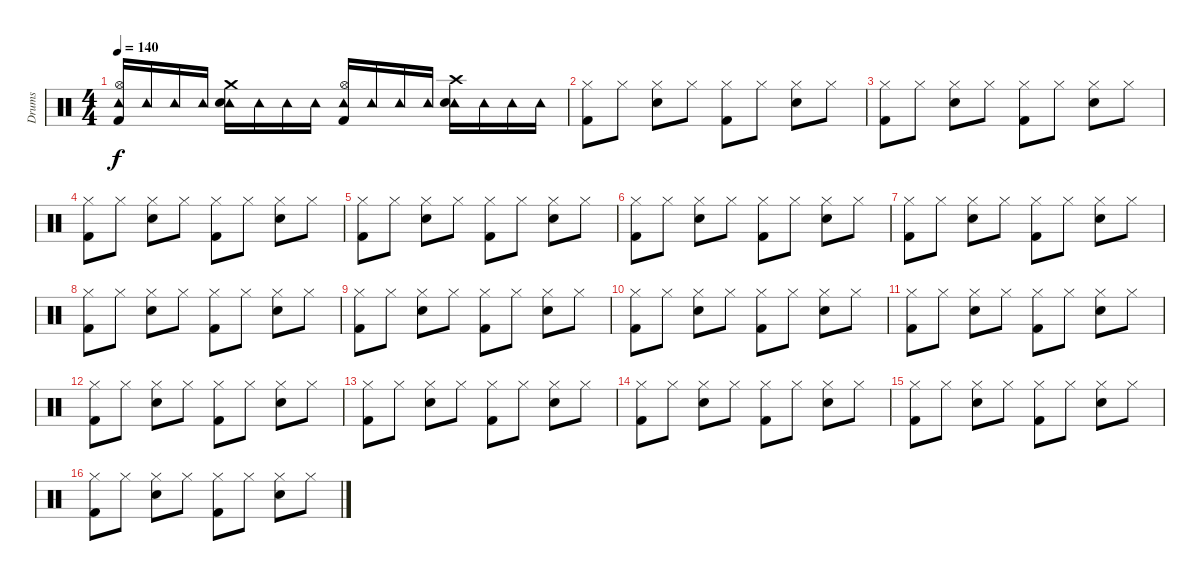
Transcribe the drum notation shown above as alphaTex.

\track ("Drums" "Drums") {instrument percussion}
\staff {score}
\articulation defaults
\ts (4 4)
\tempo 140
\clef neutral
\ks c
("Tambourine (hit)" "Hi-Hat (open)" "Kick (hit) 2").16{dy f} "Tambourine (hit)".16 "Tambourine (hit)".16 "Tambourine (hit)".16 ("Tambourine (hit)" "Crash medium (hit)" "Snare (hit) 2").16 "Tambourine (hit)".16 "Tambourine (hit)".16 "Tambourine (hit)".16 ("Tambourine (hit)" "Hi-Hat (open)" "Kick (hit) 2").16 "Tambourine (hit)".16 "Tambourine (hit)".16 "Tambourine (hit)".16 ("Tambourine (hit)" "Crash high (hit)" "Snare (hit) 2").16 "Tambourine (hit)".16 "Tambourine (hit)".16 "Tambourine (hit)".16 |
("Hi-Hat (closed)" "Kick (hit) 2").8 "Hi-Hat (closed)".8 ("Hi-Hat (closed)" "Snare (hit) 2").8 "Hi-Hat (closed)".8 ("Hi-Hat (closed)" "Kick (hit) 2").8 "Hi-Hat (closed)".8 ("Hi-Hat (closed)" "Snare (hit) 2").8 "Hi-Hat (closed)".8 |
("Hi-Hat (closed)" "Kick (hit) 2").8 "Hi-Hat (closed)".8 ("Hi-Hat (closed)" "Snare (hit) 2").8 "Hi-Hat (closed)".8 ("Hi-Hat (closed)" "Kick (hit) 2").8 "Hi-Hat (closed)".8 ("Hi-Hat (closed)" "Snare (hit) 2").8 "Hi-Hat (closed)".8 |
("Hi-Hat (closed)" "Kick (hit) 2").8 "Hi-Hat (closed)".8 ("Hi-Hat (closed)" "Snare (hit) 2").8 "Hi-Hat (closed)".8 ("Hi-Hat (closed)" "Kick (hit) 2").8 "Hi-Hat (closed)".8 ("Hi-Hat (closed)" "Snare (hit) 2").8 "Hi-Hat (closed)".8 |
("Hi-Hat (closed)" "Kick (hit) 2").8 "Hi-Hat (closed)".8 ("Hi-Hat (closed)" "Snare (hit) 2").8 "Hi-Hat (closed)".8 ("Hi-Hat (closed)" "Kick (hit) 2").8 "Hi-Hat (closed)".8 ("Hi-Hat (closed)" "Snare (hit) 2").8 "Hi-Hat (closed)".8 |
("Hi-Hat (closed)" "Kick (hit) 2").8 "Hi-Hat (closed)".8 ("Hi-Hat (closed)" "Snare (hit) 2").8 "Hi-Hat (closed)".8 ("Hi-Hat (closed)" "Kick (hit) 2").8 "Hi-Hat (closed)".8 ("Hi-Hat (closed)" "Snare (hit) 2").8 "Hi-Hat (closed)".8 |
("Hi-Hat (closed)" "Kick (hit) 2").8 "Hi-Hat (closed)".8 ("Hi-Hat (closed)" "Snare (hit) 2").8 "Hi-Hat (closed)".8 ("Hi-Hat (closed)" "Kick (hit) 2").8 "Hi-Hat (closed)".8 ("Hi-Hat (closed)" "Snare (hit) 2").8 "Hi-Hat (closed)".8 |
("Hi-Hat (closed)" "Kick (hit) 2").8 "Hi-Hat (closed)".8 ("Hi-Hat (closed)" "Snare (hit) 2").8 "Hi-Hat (closed)".8 ("Hi-Hat (closed)" "Kick (hit) 2").8 "Hi-Hat (closed)".8 ("Hi-Hat (closed)" "Snare (hit) 2").8 "Hi-Hat (closed)".8 |
("Hi-Hat (closed)" "Kick (hit) 2").8 "Hi-Hat (closed)".8 ("Hi-Hat (closed)" "Snare (hit) 2").8 "Hi-Hat (closed)".8 ("Hi-Hat (closed)" "Kick (hit) 2").8 "Hi-Hat (closed)".8 ("Hi-Hat (closed)" "Snare (hit) 2").8 "Hi-Hat (closed)".8 |
("Hi-Hat (closed)" "Kick (hit) 2").8 "Hi-Hat (closed)".8 ("Hi-Hat (closed)" "Snare (hit) 2").8 "Hi-Hat (closed)".8 ("Hi-Hat (closed)" "Kick (hit) 2").8 "Hi-Hat (closed)".8 ("Hi-Hat (closed)" "Snare (hit) 2").8 "Hi-Hat (closed)".8 |
("Hi-Hat (closed)" "Kick (hit) 2").8 "Hi-Hat (closed)".8 ("Hi-Hat (closed)" "Snare (hit) 2").8 "Hi-Hat (closed)".8 ("Hi-Hat (closed)" "Kick (hit) 2").8 "Hi-Hat (closed)".8 ("Hi-Hat (closed)" "Snare (hit) 2").8 "Hi-Hat (closed)".8 |
("Hi-Hat (closed)" "Kick (hit) 2").8 "Hi-Hat (closed)".8 ("Hi-Hat (closed)" "Snare (hit) 2").8 "Hi-Hat (closed)".8 ("Hi-Hat (closed)" "Kick (hit) 2").8 "Hi-Hat (closed)".8 ("Hi-Hat (closed)" "Snare (hit) 2").8 "Hi-Hat (closed)".8 |
("Hi-Hat (closed)" "Kick (hit) 2").8 "Hi-Hat (closed)".8 ("Hi-Hat (closed)" "Snare (hit) 2").8 "Hi-Hat (closed)".8 ("Hi-Hat (closed)" "Kick (hit) 2").8 "Hi-Hat (closed)".8 ("Hi-Hat (closed)" "Snare (hit) 2").8 "Hi-Hat (closed)".8 |
("Hi-Hat (closed)" "Kick (hit) 2").8 "Hi-Hat (closed)".8 ("Hi-Hat (closed)" "Snare (hit) 2").8 "Hi-Hat (closed)".8 ("Hi-Hat (closed)" "Kick (hit) 2").8 "Hi-Hat (closed)".8 ("Hi-Hat (closed)" "Snare (hit) 2").8 "Hi-Hat (closed)".8 |
("Hi-Hat (closed)" "Kick (hit) 2").8 "Hi-Hat (closed)".8 ("Hi-Hat (closed)" "Snare (hit) 2").8 "Hi-Hat (closed)".8 ("Hi-Hat (closed)" "Kick (hit) 2").8 "Hi-Hat (closed)".8 ("Hi-Hat (closed)" "Snare (hit) 2").8 "Hi-Hat (closed)".8 |
("Hi-Hat (closed)" "Kick (hit) 2").8 "Hi-Hat (closed)".8 ("Hi-Hat (closed)" "Snare (hit) 2").8 "Hi-Hat (closed)".8 ("Hi-Hat (closed)" "Kick (hit) 2").8 "Hi-Hat (closed)".8 ("Hi-Hat (closed)" "Snare (hit) 2").8 "Hi-Hat (closed)".8
